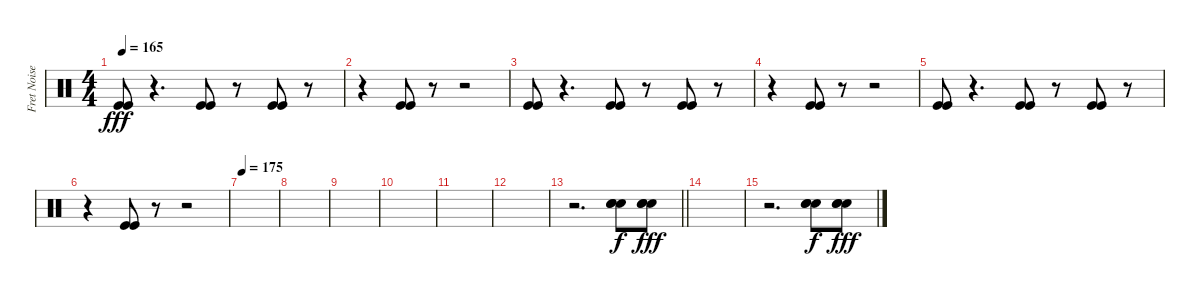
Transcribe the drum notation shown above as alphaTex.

\track ("Fret Noise / Percussion(corpus)" "Fret Noise") {instrument percussion}
\staff {score}
\articulation defaults
\ts (4 4)
\tempo 165
\clef neutral
\ks c
("Kick (hit)" "Kick (hit)").8{dy fff} r.4{d} ("Kick (hit)" "Kick (hit)").8 r.8 ("Kick (hit)" "Kick (hit)").8 r.8 |
r.4 ("Kick (hit)" "Kick (hit)").8 r.8 r.2 |
("Kick (hit)" "Kick (hit)").8 r.4{d} ("Kick (hit)" "Kick (hit)").8 r.8 ("Kick (hit)" "Kick (hit)").8 r.8 |
r.4 ("Kick (hit)" "Kick (hit)").8 r.8 r.2 |
("Kick (hit)" "Kick (hit)").8 r.4{d} ("Kick (hit)" "Kick (hit)").8 r.8 ("Kick (hit)" "Kick (hit)").8 r.8 |
r.4 ("Kick (hit)" "Kick (hit)").8 r.8 r.2 |
\tempo 175
|
|
|
|
|
|
\barLineRight lightlight
r.2{d volume 11} ("Snare (hit) 2" "Snare (hit) 2" "Snare (hit) 2").8{dy f} ("Snare (hit) 2" "Snare (hit) 2" "Snare (hit) 2").8{dy fff} |
|
r.2{d} ("Snare (hit) 2" "Snare (hit) 2" "Snare (hit) 2").8{dy f} ("Snare (hit) 2" "Snare (hit) 2" "Snare (hit) 2").8{dy fff}
